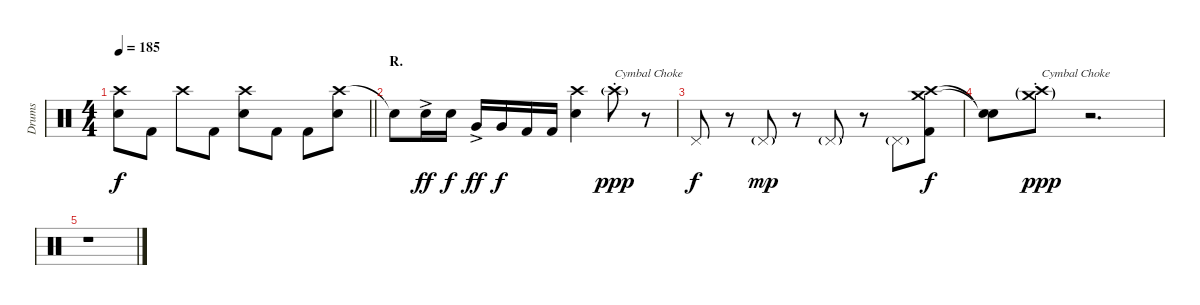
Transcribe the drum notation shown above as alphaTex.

\track ("Drums" "Drums") {instrument percussion}
\staff {score}
\articulation defaults
\ts (4 4)
\tempo 185
\clef neutral
\barLineRight lightlight
\ks c
("Crash high (hit)" "Electric Snare (hit)").8{dy f} "Kick (hit) 2".8 "Crash high (hit)".8 "Kick (hit) 2".8 ("Crash high (hit)" "Electric Snare (hit)").8 "Kick (hit) 2".8 "Kick (hit) 2".8 ("Crash high (hit)" "Electric Snare (hit)").8 |
\section ("" "R.")
"Snare (hit)"{t}.8 "Electric Snare (hit)"{ac}.16{dy ff} "Electric Snare (hit)".16{dy f} "Very Low Tom (hit)"{ac}.16{dy ff} "Very Low Tom (hit)".16{dy f} "Kick (hit) 2".16 "Kick (hit) 2".16 ("Crash high (hit)" "Electric Snare (hit)").4 "Crash high (hit)"{g st}.8{txt "Cymbal Choke" dy ppp} r.8 |
"Pedal Hi-Hat (hit)".8{dy f} r.8 "Pedal Hi-Hat (hit)"{g}.8{dy mp} r.8 "Pedal Hi-Hat (hit)"{g}.8 r.8 "Pedal Hi-Hat (hit)"{g}.8 ("Crash medium (hit)" "Crash high (hit)" "Kick (hit) 2").8{dy f} |
("Snare (hit)"{t} "Snare (hit)"{t}).8 ("Crash medium (hit)"{g st} "Crash high (hit)"{g st}).8{txt "Cymbal Choke" dy ppp} r.2{d} |
r.1
